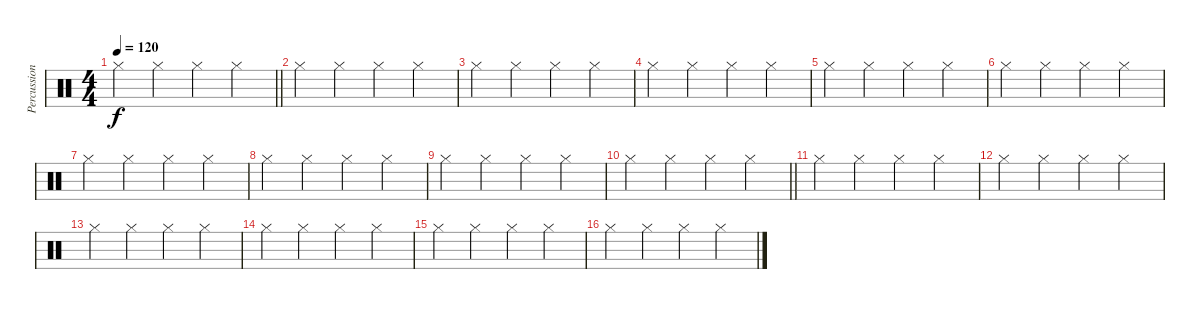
\track ("Percussion" "Percussion") {instrument percussion}
\staff {score}
\articulation defaults
\ts (4 4)
\tempo 120
\clef neutral
\barLineRight lightlight
\ks c "Hi-Hat (closed)".4{dy f} "Hi-Hat (closed)".4 "Hi-Hat (closed)".4 "Hi-Hat (closed)".4
|
"Hi-Hat (closed)".4 "Hi-Hat (closed)".4 "Hi-Hat (closed)".4 "Hi-Hat (closed)".4 |
"Hi-Hat (closed)".4 "Hi-Hat (closed)".4 "Hi-Hat (closed)".4 "Hi-Hat (closed)".4 |
"Hi-Hat (closed)".4 "Hi-Hat (closed)".4 "Hi-Hat (closed)".4 "Hi-Hat (closed)".4 |
"Hi-Hat (closed)".4 "Hi-Hat (closed)".4 "Hi-Hat (closed)".4 "Hi-Hat (closed)".4 |
"Hi-Hat (closed)".4 "Hi-Hat (closed)".4 "Hi-Hat (closed)".4 "Hi-Hat (closed)".4 |
"Hi-Hat (closed)".4 "Hi-Hat (closed)".4 "Hi-Hat (closed)".4 "Hi-Hat (closed)".4 |
"Hi-Hat (closed)".4 "Hi-Hat (closed)".4 "Hi-Hat (closed)".4 "Hi-Hat (closed)".4 |
"Hi-Hat (closed)".4 "Hi-Hat (closed)".4 "Hi-Hat (closed)".4 "Hi-Hat (closed)".4 |
\barLineRight lightlight "Hi-Hat (closed)".4 "Hi-Hat (closed)".4 "Hi-Hat (closed)".4 "Hi-Hat (closed)".4
|
"Hi-Hat (closed)".4 "Hi-Hat (closed)".4 "Hi-Hat (closed)".4 "Hi-Hat (closed)".4 |
"Hi-Hat (closed)".4 "Hi-Hat (closed)".4 "Hi-Hat (closed)".4 "Hi-Hat (closed)".4 |
"Hi-Hat (closed)".4 "Hi-Hat (closed)".4 "Hi-Hat (closed)".4 "Hi-Hat (closed)".4 |
"Hi-Hat (closed)".4 "Hi-Hat (closed)".4 "Hi-Hat (closed)".4 "Hi-Hat (closed)".4 |
"Hi-Hat (closed)".4 "Hi-Hat (closed)".4 "Hi-Hat (closed)".4 "Hi-Hat (closed)".4 |
"Hi-Hat (closed)".4 "Hi-Hat (closed)".4 "Hi-Hat (closed)".4 "Hi-Hat (closed)".4
